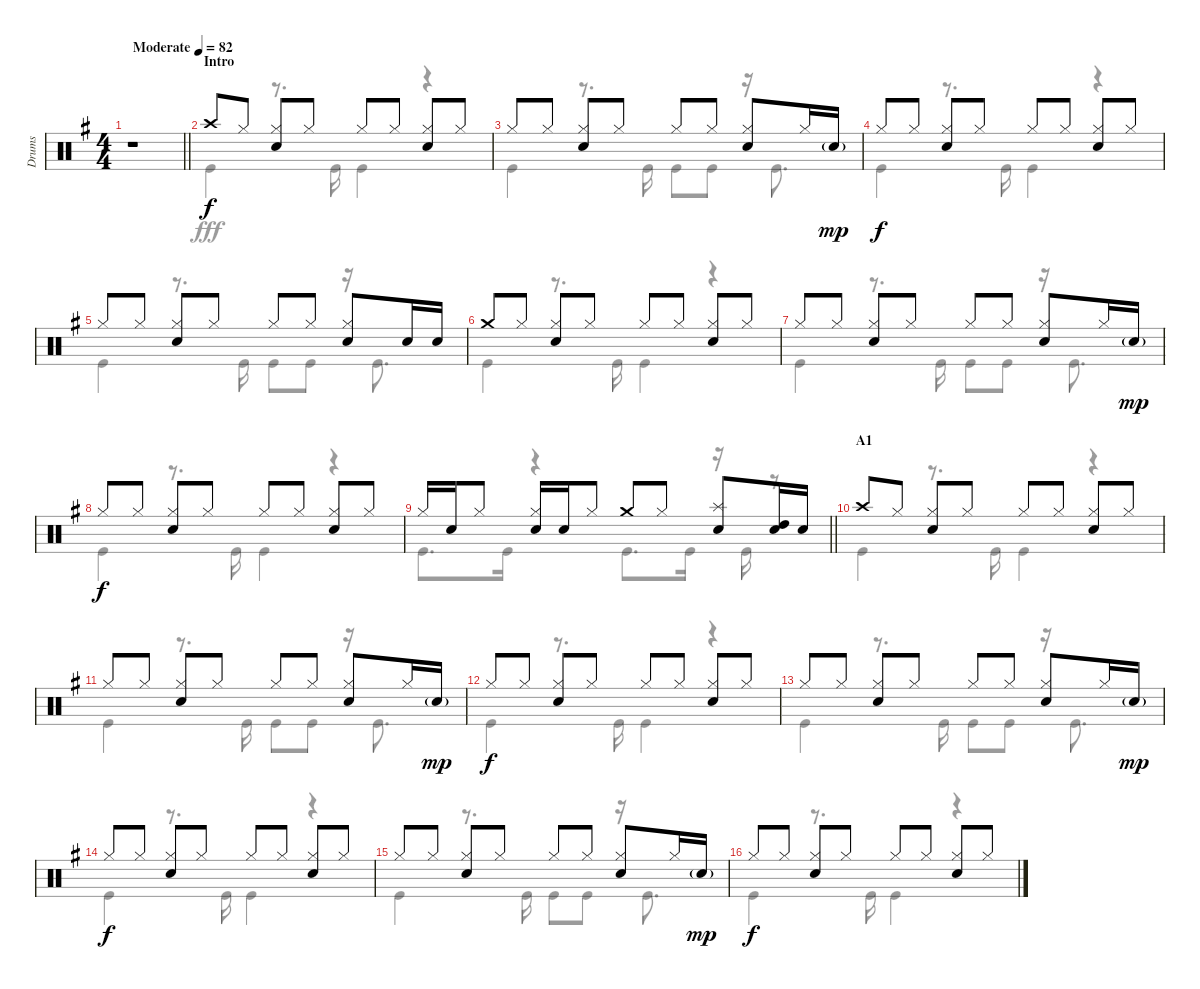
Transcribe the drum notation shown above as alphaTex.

\track ("Drums" "Drums") {instrument percussion}
\staff {score}
\articulation defaults
\voice
\ts (4 4)
\tempo (82 "Moderate")
\clef neutral
\barLineRight lightlight
\ks g
r.1{dy f} |
\section ("" "Intro")
"Crash high (hit)".8 "Hi-Hat (closed)".8 ("Hi-Hat (closed)" "Snare (hit) 2").8 "Hi-Hat (closed)".8 "Hi-Hat (closed)".8 "Hi-Hat (closed)".8 ("Hi-Hat (closed)" "Snare (hit) 2").8 "Hi-Hat (closed)".8 |
"Hi-Hat (closed)".8 "Hi-Hat (closed)".8 ("Hi-Hat (closed)" "Snare (hit) 2").8 "Hi-Hat (closed)".8 "Hi-Hat (closed)".8 "Hi-Hat (closed)".8 ("Hi-Hat (closed)" "Snare (hit) 2").8 "Hi-Hat (closed)".16 "Snare (hit) 2"{g}.16{dy mp} |
"Hi-Hat (closed)".8{dy f} "Hi-Hat (closed)".8 ("Hi-Hat (closed)" "Snare (hit) 2").8 "Hi-Hat (closed)".8 "Hi-Hat (closed)".8 "Hi-Hat (closed)".8 ("Hi-Hat (closed)" "Snare (hit) 2").8 "Hi-Hat (closed)".8 |
"Hi-Hat (closed)".8 "Hi-Hat (closed)".8 ("Hi-Hat (closed)" "Snare (hit) 2").8 "Hi-Hat (closed)".8 "Hi-Hat (closed)".8 "Hi-Hat (closed)".8 ("Hi-Hat (closed)" "Snare (hit) 2").8 "Snare (hit) 2".16 "Snare (hit) 2".16 |
"Crash medium (hit)".8 "Hi-Hat (closed)".8 ("Hi-Hat (closed)" "Snare (hit) 2").8 "Hi-Hat (closed)".8 "Hi-Hat (closed)".8 "Hi-Hat (closed)".8 ("Hi-Hat (closed)" "Snare (hit) 2").8 "Hi-Hat (closed)".8 |
"Hi-Hat (closed)".8 "Hi-Hat (closed)".8 ("Hi-Hat (closed)" "Snare (hit) 2").8 "Hi-Hat (closed)".8 "Hi-Hat (closed)".8 "Hi-Hat (closed)".8 ("Hi-Hat (closed)" "Snare (hit) 2").8 "Hi-Hat (closed)".16 "Snare (hit) 2"{g}.16{dy mp} |
"Hi-Hat (closed)".8{dy f} "Hi-Hat (closed)".8 ("Hi-Hat (closed)" "Snare (hit) 2").8 "Hi-Hat (closed)".8 "Hi-Hat (closed)".8 "Hi-Hat (closed)".8 ("Hi-Hat (closed)" "Snare (hit) 2").8 "Hi-Hat (closed)".8 |
\barLineRight lightlight "Hi-Hat (closed)".16 "Snare (hit) 2".16 "Hi-Hat (closed)".8
("Hi-Hat (closed)" "Snare (hit) 2").16 "Snare (hit) 2".16 "Hi-Hat (closed)".8 "Crash medium (hit)".8 "Hi-Hat (closed)".8 ("Splash (hit)" "Snare (hit) 2").8 ("High Tom (hit)" "Snare (hit) 2").16 "Snare (hit) 2".16 |
\section ("" "A1")
"Crash high (hit)".8 "Hi-Hat (closed)".8 ("Hi-Hat (closed)" "Snare (hit) 2").8 "Hi-Hat (closed)".8 "Hi-Hat (closed)".8 "Hi-Hat (closed)".8 ("Hi-Hat (closed)" "Snare (hit) 2").8 "Hi-Hat (closed)".8 |
"Hi-Hat (closed)".8 "Hi-Hat (closed)".8 ("Hi-Hat (closed)" "Snare (hit) 2").8 "Hi-Hat (closed)".8 "Hi-Hat (closed)".8 "Hi-Hat (closed)".8 ("Hi-Hat (closed)" "Snare (hit) 2").8 "Hi-Hat (closed)".16 "Snare (hit) 2"{g}.16{dy mp} |
"Hi-Hat (closed)".8{dy f} "Hi-Hat (closed)".8 ("Hi-Hat (closed)" "Snare (hit) 2").8 "Hi-Hat (closed)".8 "Hi-Hat (closed)".8 "Hi-Hat (closed)".8 ("Hi-Hat (closed)" "Snare (hit) 2").8 "Hi-Hat (closed)".8 |
"Hi-Hat (closed)".8 "Hi-Hat (closed)".8 ("Hi-Hat (closed)" "Snare (hit) 2").8 "Hi-Hat (closed)".8 "Hi-Hat (closed)".8 "Hi-Hat (closed)".8 ("Hi-Hat (closed)" "Snare (hit) 2").8 "Hi-Hat (closed)".16 "Snare (hit) 2"{g}.16{dy mp} |
"Hi-Hat (closed)".8{dy f} "Hi-Hat (closed)".8 ("Hi-Hat (closed)" "Snare (hit) 2").8 "Hi-Hat (closed)".8 "Hi-Hat (closed)".8 "Hi-Hat (closed)".8 ("Hi-Hat (closed)" "Snare (hit) 2").8 "Hi-Hat (closed)".8 |
"Hi-Hat (closed)".8 "Hi-Hat (closed)".8 ("Hi-Hat (closed)" "Snare (hit) 2").8 "Hi-Hat (closed)".8 "Hi-Hat (closed)".8 "Hi-Hat (closed)".8 ("Hi-Hat (closed)" "Snare (hit) 2").8 "Hi-Hat (closed)".16 "Snare (hit) 2"{g}.16{dy mp} |
"Hi-Hat (closed)".8{dy f} "Hi-Hat (closed)".8 ("Hi-Hat (closed)" "Snare (hit) 2").8 "Hi-Hat (closed)".8 "Hi-Hat (closed)".8 "Hi-Hat (closed)".8 ("Hi-Hat (closed)" "Snare (hit) 2").8 "Hi-Hat (closed)".8
\voice
\clef neutral
\ottava regular
\simile none
\barLineRight lightlight
\ks g
r.1{dy fff} |
"Kick (hit)".4 r.8{d} "Kick (hit)".16 "Kick (hit)".4 r.4 |
"Kick (hit)".4 r.8{d} "Kick (hit)".16 "Kick (hit)".8 "Kick (hit)".8 r.16 "Kick (hit)".8{d} |
"Kick (hit)".4 r.8{d} "Kick (hit)".16 "Kick (hit)".4 r.4 |
"Kick (hit)".4 r.8{d} "Kick (hit)".16 "Kick (hit)".8 "Kick (hit)".8 r.16 "Kick (hit)".8{d} |
"Kick (hit)".4 r.8{d} "Kick (hit)".16 "Kick (hit)".4 r.4 |
"Kick (hit)".4 r.8{d} "Kick (hit)".16 "Kick (hit)".8 "Kick (hit)".8 r.16 "Kick (hit)".8{d} |
"Kick (hit)".4 r.8{d} "Kick (hit)".16 "Kick (hit)".4 r.4 |
\barLineRight lightlight "Kick (hit)".8{d} "Kick (hit)".16
r.4 "Kick (hit)".8{d} "Kick (hit)".16 r.16 "Kick (hit)".16 r.8 |
"Kick (hit)".4 r.8{d} "Kick (hit)".16 "Kick (hit)".4 r.4 |
"Kick (hit)".4 r.8{d} "Kick (hit)".16 "Kick (hit)".8 "Kick (hit)".8 r.16 "Kick (hit)".8{d} |
"Kick (hit)".4 r.8{d} "Kick (hit)".16 "Kick (hit)".4 r.4 |
"Kick (hit)".4 r.8{d} "Kick (hit)".16 "Kick (hit)".8 "Kick (hit)".8 r.16 "Kick (hit)".8{d} |
"Kick (hit)".4 r.8{d} "Kick (hit)".16 "Kick (hit)".4 r.4 |
"Kick (hit)".4 r.8{d} "Kick (hit)".16 "Kick (hit)".8 "Kick (hit)".8 r.16 "Kick (hit)".8{d} |
"Kick (hit)".4 r.8{d} "Kick (hit)".16 "Kick (hit)".4 r.4
